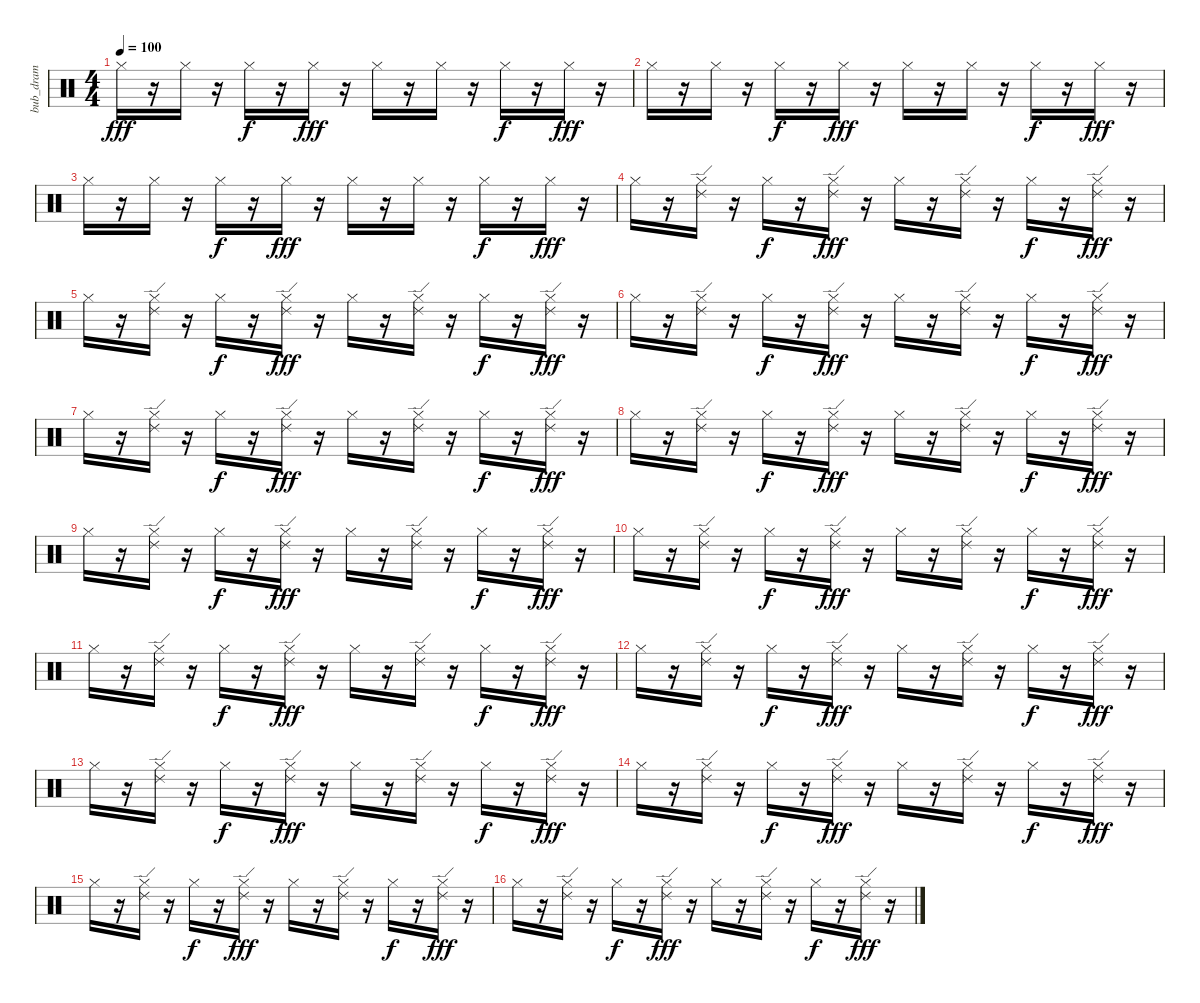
\track ("bub_dram" "bub_dram") {instrument percussion}
\staff {score}
\articulation defaults
\ts (4 4)
\tempo 100
\clef neutral
\ks c "Hi-Hat (closed)".16{dy fff}
r.16 "Hi-Hat (closed)".16 r.16 "Hi-Hat (closed)".16{dy f} r.16 "Hi-Hat (closed)".16{dy fff} r.16 "Hi-Hat (closed)".16 r.16 "Hi-Hat (closed)".16 r.16 "Hi-Hat (closed)".16{dy f} r.16 "Hi-Hat (closed)".16{dy fff} r.16 |
"Hi-Hat (closed)".16 r.16 "Hi-Hat (closed)".16 r.16 "Hi-Hat (closed)".16{dy f} r.16 "Hi-Hat (closed)".16{dy fff} r.16 "Hi-Hat (closed)".16 r.16 "Hi-Hat (closed)".16 r.16 "Hi-Hat (closed)".16{dy f} r.16 "Hi-Hat (closed)".16{dy fff} r.16 |
"Hi-Hat (closed)".16 r.16 "Hi-Hat (closed)".16 r.16 "Hi-Hat (closed)".16{dy f} r.16 "Hi-Hat (closed)".16{dy fff} r.16 "Hi-Hat (closed)".16 r.16 "Hi-Hat (closed)".16 r.16 "Hi-Hat (closed)".16{dy f} r.16 "Hi-Hat (closed)".16{dy fff} r.16 |
"Hi-Hat (closed)".16 r.16 ("Ride (edge) 2" "Hi-Hat (closed)").16 r.16 "Hi-Hat (closed)".16{dy f} r.16 ("Ride (edge) 2" "Hi-Hat (closed)").16{dy fff} r.16 "Hi-Hat (closed)".16 r.16 ("Ride (edge) 2" "Hi-Hat (closed)").16 r.16 "Hi-Hat (closed)".16{dy f} r.16 ("Ride (edge) 2" "Hi-Hat (closed)").16{dy fff} r.16 |
"Hi-Hat (closed)".16 r.16 ("Ride (edge) 2" "Hi-Hat (closed)").16 r.16 "Hi-Hat (closed)".16{dy f} r.16 ("Ride (edge) 2" "Hi-Hat (closed)").16{dy fff} r.16 "Hi-Hat (closed)".16 r.16 ("Ride (edge) 2" "Hi-Hat (closed)").16 r.16 "Hi-Hat (closed)".16{dy f} r.16 ("Ride (edge) 2" "Hi-Hat (closed)").16{dy fff} r.16 |
"Hi-Hat (closed)".16 r.16 ("Ride (edge) 2" "Hi-Hat (closed)").16 r.16 "Hi-Hat (closed)".16{dy f} r.16 ("Ride (edge) 2" "Hi-Hat (closed)").16{dy fff} r.16 "Hi-Hat (closed)".16 r.16 ("Ride (edge) 2" "Hi-Hat (closed)").16 r.16 "Hi-Hat (closed)".16{dy f} r.16 ("Ride (edge) 2" "Hi-Hat (closed)").16{dy fff} r.16 |
"Hi-Hat (closed)".16 r.16 ("Ride (edge) 2" "Hi-Hat (closed)").16 r.16 "Hi-Hat (closed)".16{dy f} r.16 ("Ride (edge) 2" "Hi-Hat (closed)").16{dy fff} r.16 "Hi-Hat (closed)".16 r.16 ("Ride (edge) 2" "Hi-Hat (closed)").16 r.16 "Hi-Hat (closed)".16{dy f} r.16 ("Ride (edge) 2" "Hi-Hat (closed)").16{dy fff} r.16 |
"Hi-Hat (closed)".16 r.16 ("Ride (edge) 2" "Hi-Hat (closed)").16 r.16 "Hi-Hat (closed)".16{dy f} r.16 ("Ride (edge) 2" "Hi-Hat (closed)").16{dy fff} r.16 "Hi-Hat (closed)".16 r.16 ("Ride (edge) 2" "Hi-Hat (closed)").16 r.16 "Hi-Hat (closed)".16{dy f} r.16 ("Ride (edge) 2" "Hi-Hat (closed)").16{dy fff} r.16 |
"Hi-Hat (closed)".16 r.16 ("Hi-Hat (closed)" "Ride (edge) 2").16 r.16 "Hi-Hat (closed)".16{dy f} r.16 ("Hi-Hat (closed)" "Ride (edge) 2").16{dy fff} r.16 "Hi-Hat (closed)".16 r.16 ("Hi-Hat (closed)" "Ride (edge) 2").16 r.16 "Hi-Hat (closed)".16{dy f} r.16 ("Hi-Hat (closed)" "Ride (edge) 2").16{dy fff} r.16 |
"Hi-Hat (closed)".16 r.16 ("Hi-Hat (closed)" "Ride (edge) 2").16 r.16 "Hi-Hat (closed)".16{dy f} r.16 ("Hi-Hat (closed)" "Ride (edge) 2").16{dy fff} r.16 "Hi-Hat (closed)".16 r.16 ("Hi-Hat (closed)" "Ride (edge) 2").16 r.16 "Hi-Hat (closed)".16{dy f} r.16 ("Hi-Hat (closed)" "Ride (edge) 2").16{dy fff} r.16 |
"Hi-Hat (closed)".16 r.16 ("Hi-Hat (closed)" "Ride (edge) 2").16 r.16 "Hi-Hat (closed)".16{dy f} r.16 ("Hi-Hat (closed)" "Ride (edge) 2").16{dy fff} r.16 "Hi-Hat (closed)".16 r.16 ("Hi-Hat (closed)" "Ride (edge) 2").16 r.16 "Hi-Hat (closed)".16{dy f} r.16 ("Hi-Hat (closed)" "Ride (edge) 2").16{dy fff} r.16 |
"Hi-Hat (closed)".16 r.16 ("Ride (edge) 2" "Hi-Hat (closed)").16 r.16 "Hi-Hat (closed)".16{dy f} r.16 ("Ride (edge) 2" "Hi-Hat (closed)").16{dy fff} r.16 "Hi-Hat (closed)".16 r.16 ("Ride (edge) 2" "Hi-Hat (closed)").16 r.16 "Hi-Hat (closed)".16{dy f} r.16 ("Ride (edge) 2" "Hi-Hat (closed)").16{dy fff} r.16 |
"Hi-Hat (closed)".16 r.16 ("Ride (edge) 2" "Hi-Hat (closed)").16 r.16 "Hi-Hat (closed)".16{dy f} r.16 ("Ride (edge) 2" "Hi-Hat (closed)").16{dy fff} r.16 "Hi-Hat (closed)".16 r.16 ("Ride (edge) 2" "Hi-Hat (closed)").16 r.16 "Hi-Hat (closed)".16{dy f} r.16 ("Ride (edge) 2" "Hi-Hat (closed)").16{dy fff} r.16 |
"Hi-Hat (closed)".16 r.16 ("Ride (edge) 2" "Hi-Hat (closed)").16 r.16 "Hi-Hat (closed)".16{dy f} r.16 ("Ride (edge) 2" "Hi-Hat (closed)").16{dy fff} r.16 "Hi-Hat (closed)".16 r.16 ("Ride (edge) 2" "Hi-Hat (closed)").16 r.16 "Hi-Hat (closed)".16{dy f} r.16 ("Ride (edge) 2" "Hi-Hat (closed)").16{dy fff} r.16 |
"Hi-Hat (closed)".16 r.16 ("Ride (edge) 2" "Hi-Hat (closed)").16 r.16 "Hi-Hat (closed)".16{dy f} r.16 ("Ride (edge) 2" "Hi-Hat (closed)").16{dy fff} r.16 "Hi-Hat (closed)".16 r.16 ("Ride (edge) 2" "Hi-Hat (closed)").16 r.16 "Hi-Hat (closed)".16{dy f} r.16 ("Ride (edge) 2" "Hi-Hat (closed)").16{dy fff} r.16 |
"Hi-Hat (closed)".16 r.16 ("Ride (edge) 2" "Hi-Hat (closed)").16 r.16 "Hi-Hat (closed)".16{dy f} r.16 ("Ride (edge) 2" "Hi-Hat (closed)").16{dy fff} r.16 "Hi-Hat (closed)".16 r.16 ("Ride (edge) 2" "Hi-Hat (closed)").16 r.16 "Hi-Hat (closed)".16{dy f} r.16 ("Ride (edge) 2" "Hi-Hat (closed)").16{dy fff} r.16
